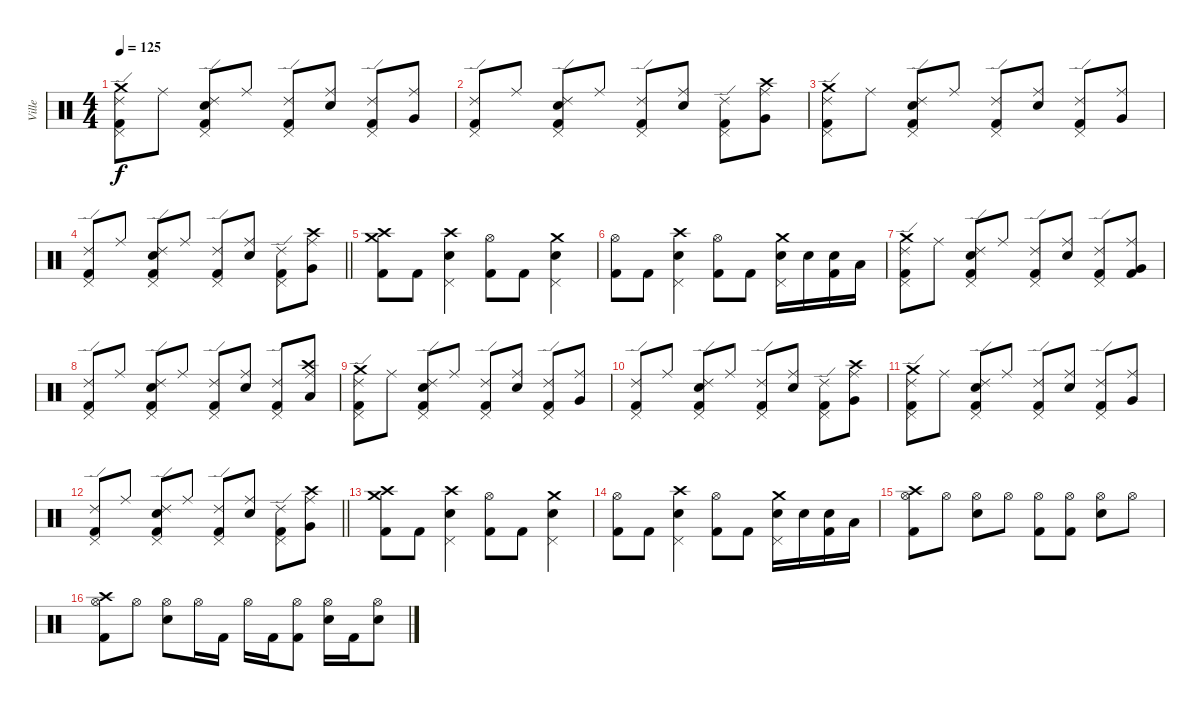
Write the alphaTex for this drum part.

\track ("Ville" "Ville") {instrument percussion}
\staff {score}
\articulation defaults
\ts (4 4)
\tempo 125
\clef neutral
\ks c
("Crash medium (hit)" "Pedal Hi-Hat (hit)" "Ride (edge) 2" "Kick (hit) 2").8{dy f} "Ride (middle)".8 ("Snare (hit) 2" "Pedal Hi-Hat (hit)" "Ride (edge) 2" "Kick (hit) 2").8 "Ride (middle)".8 ("Pedal Hi-Hat (hit)" "Ride (edge) 2" "Kick (hit) 2").8 ("Snare (hit) 2" "Ride (middle)").8 ("Pedal Hi-Hat (hit)" "Ride (edge) 2" "Kick (hit) 2").8 ("Very Low Tom (hit)" "Ride (middle)").8 |
("Pedal Hi-Hat (hit)" "Ride (edge) 2" "Kick (hit) 2").8 "Ride (middle)".8 ("Snare (hit) 2" "Pedal Hi-Hat (hit)" "Ride (edge) 2" "Kick (hit) 2").8 "Ride (middle)".8 ("Pedal Hi-Hat (hit)" "Ride (edge) 2" "Kick (hit) 2").8 ("Snare (hit) 2" "Ride (middle)").8 ("Pedal Hi-Hat (hit)" "Ride (edge) 2" "Kick (hit) 2").8 ("Crash high (hit)" "Very Low Tom (hit)" "Ride (middle)").8 |
("Crash medium (hit)" "Pedal Hi-Hat (hit)" "Ride (edge) 2" "Kick (hit) 2").8 "Ride (middle)".8 ("Snare (hit) 2" "Pedal Hi-Hat (hit)" "Ride (edge) 2" "Kick (hit) 2").8 "Ride (middle)".8 ("Pedal Hi-Hat (hit)" "Ride (edge) 2" "Kick (hit) 2").8 ("Snare (hit) 2" "Ride (middle)").8 ("Pedal Hi-Hat (hit)" "Ride (edge) 2" "Kick (hit) 2").8 ("Very Low Tom (hit)" "Ride (middle)").8 |
\barLineRight lightlight
("Pedal Hi-Hat (hit)" "Ride (edge) 2" "Kick (hit) 2").8 "Ride (middle)".8 ("Snare (hit) 2" "Pedal Hi-Hat (hit)" "Ride (edge) 2" "Kick (hit) 2").8 "Ride (middle)".8 ("Pedal Hi-Hat (hit)" "Ride (edge) 2" "Kick (hit) 2").8 ("Snare (hit) 2" "Ride (middle)").8 ("Pedal Hi-Hat (hit)" "Ride (edge) 2" "Kick (hit) 2").8 ("Crash high (hit)" "Very Low Tom (hit)" "Ride (middle)").8 |
("Crash medium (hit)" "Crash high (hit)" "Kick (hit) 2").8 "Kick (hit) 2".8 ("Crash high (hit)" "Pedal Hi-Hat (hit)" "Snare (hit) 2").4 ("Hi-Hat (open)" "Kick (hit) 2").8 "Kick (hit) 2".8 ("Crash medium (hit)" "Pedal Hi-Hat (hit)" "Snare (hit) 2").4 |
("Hi-Hat (open)" "Kick (hit) 2").8 "Kick (hit) 2".8 ("Crash high (hit)" "Pedal Hi-Hat (hit)" "Snare (hit) 2").4 ("Hi-Hat (open)" "Kick (hit) 2").8 "Kick (hit) 2".8 ("Crash medium (hit)" "Pedal Hi-Hat (hit)" "Snare (hit) 2").16 "Snare (hit) 2".16 ("Snare (hit) 2" "Kick (hit) 2").16 "Low Tom (hit)".16 |
("Crash medium (hit)" "Pedal Hi-Hat (hit)" "Ride (edge) 2" "Kick (hit) 2").8 "Ride (middle)".8 ("Snare (hit) 2" "Pedal Hi-Hat (hit)" "Ride (edge) 2" "Kick (hit) 2").8 "Ride (middle)".8 ("Pedal Hi-Hat (hit)" "Ride (edge) 2" "Kick (hit) 2").8 ("Snare (hit) 2" "Ride (middle)").8 ("Pedal Hi-Hat (hit)" "Ride (edge) 2" "Kick (hit) 2").8 ("Very Low Tom (hit)" "Ride (middle)" "Kick (hit) 2").8 |
("Pedal Hi-Hat (hit)" "Ride (edge) 2" "Kick (hit) 2").8 "Ride (middle)".8 ("Snare (hit) 2" "Pedal Hi-Hat (hit)" "Ride (edge) 2" "Kick (hit) 2").8 "Ride (middle)".8 ("Pedal Hi-Hat (hit)" "Ride (edge) 2" "Kick (hit) 2").8 ("Snare (hit) 2" "Ride (middle)").8 ("Pedal Hi-Hat (hit)" "Ride (edge) 2" "Kick (hit) 2").8 ("Crash high (hit)" "Low Floor Tom (hit)" "Ride (middle)").8 |
("Crash medium (hit)" "Pedal Hi-Hat (hit)" "Ride (edge) 2" "Kick (hit) 2").8 "Ride (middle)".8 ("Snare (hit) 2" "Pedal Hi-Hat (hit)" "Ride (edge) 2" "Kick (hit) 2").8 "Ride (middle)".8 ("Pedal Hi-Hat (hit)" "Ride (edge) 2" "Kick (hit) 2").8 ("Snare (hit) 2" "Ride (middle)").8 ("Pedal Hi-Hat (hit)" "Ride (edge) 2" "Kick (hit) 2").8 ("Very Low Tom (hit)" "Ride (middle)").8 |
("Pedal Hi-Hat (hit)" "Ride (edge) 2" "Kick (hit) 2").8 "Ride (middle)".8 ("Snare (hit) 2" "Pedal Hi-Hat (hit)" "Ride (edge) 2" "Kick (hit) 2").8 "Ride (middle)".8 ("Pedal Hi-Hat (hit)" "Ride (edge) 2" "Kick (hit) 2").8 ("Snare (hit) 2" "Ride (middle)").8 ("Pedal Hi-Hat (hit)" "Ride (edge) 2" "Kick (hit) 2").8 ("Crash high (hit)" "Very Low Tom (hit)" "Ride (middle)").8 |
("Crash medium (hit)" "Pedal Hi-Hat (hit)" "Ride (edge) 2" "Kick (hit) 2").8 "Ride (middle)".8 ("Snare (hit) 2" "Pedal Hi-Hat (hit)" "Ride (edge) 2" "Kick (hit) 2").8 "Ride (middle)".8 ("Pedal Hi-Hat (hit)" "Ride (edge) 2" "Kick (hit) 2").8 ("Snare (hit) 2" "Ride (middle)").8 ("Pedal Hi-Hat (hit)" "Ride (edge) 2" "Kick (hit) 2").8 ("Very Low Tom (hit)" "Ride (middle)").8 |
\barLineRight lightlight
("Pedal Hi-Hat (hit)" "Ride (edge) 2" "Kick (hit) 2").8 "Ride (middle)".8 ("Snare (hit) 2" "Pedal Hi-Hat (hit)" "Ride (edge) 2" "Kick (hit) 2").8 "Ride (middle)".8 ("Pedal Hi-Hat (hit)" "Ride (edge) 2" "Kick (hit) 2").8 ("Snare (hit) 2" "Ride (middle)").8 ("Pedal Hi-Hat (hit)" "Ride (edge) 2" "Kick (hit) 2").8 ("Crash high (hit)" "Very Low Tom (hit)" "Ride (middle)").8 |
("Crash medium (hit)" "Crash high (hit)" "Kick (hit) 2").8 "Kick (hit) 2".8 ("Crash high (hit)" "Pedal Hi-Hat (hit)" "Snare (hit) 2").4 ("Hi-Hat (open)" "Kick (hit) 2").8 "Kick (hit) 2".8 ("Crash medium (hit)" "Pedal Hi-Hat (hit)" "Snare (hit) 2").4 |
("Hi-Hat (open)" "Kick (hit) 2").8 "Kick (hit) 2".8 ("Crash high (hit)" "Pedal Hi-Hat (hit)" "Snare (hit) 2").4 ("Hi-Hat (open)" "Kick (hit) 2").8 "Kick (hit) 2".8 ("Crash medium (hit)" "Pedal Hi-Hat (hit)" "Snare (hit) 2").16 "Snare (hit) 2".16 ("Snare (hit) 2" "Kick (hit) 2").16 "Low Tom (hit)".16 |
("Crash high (hit)" "Hi-Hat (open)" "Kick (hit) 2").8 "Hi-Hat (open)".8 ("Hi-Hat (open)" "Snare (hit) 2").8 "Hi-Hat (open)".8 ("Hi-Hat (open)" "Kick (hit) 2").8 ("Hi-Hat (open)" "Kick (hit) 2").8 ("Hi-Hat (open)" "Snare (hit) 2").8 "Hi-Hat (open)".8 |
("Crash high (hit)" "Hi-Hat (open)" "Kick (hit) 2").8 "Hi-Hat (open)".8 ("Hi-Hat (open)" "Snare (hit) 2").8 "Hi-Hat (open)".16 "Kick (hit) 2".16 "Hi-Hat (open)".16 "Kick (hit) 2".16 ("Hi-Hat (open)" "Kick (hit) 2").8 ("Hi-Hat (open)" "Snare (hit) 2").16 "Kick (hit) 2".16 ("Hi-Hat (open)" "Snare (hit) 2").8
